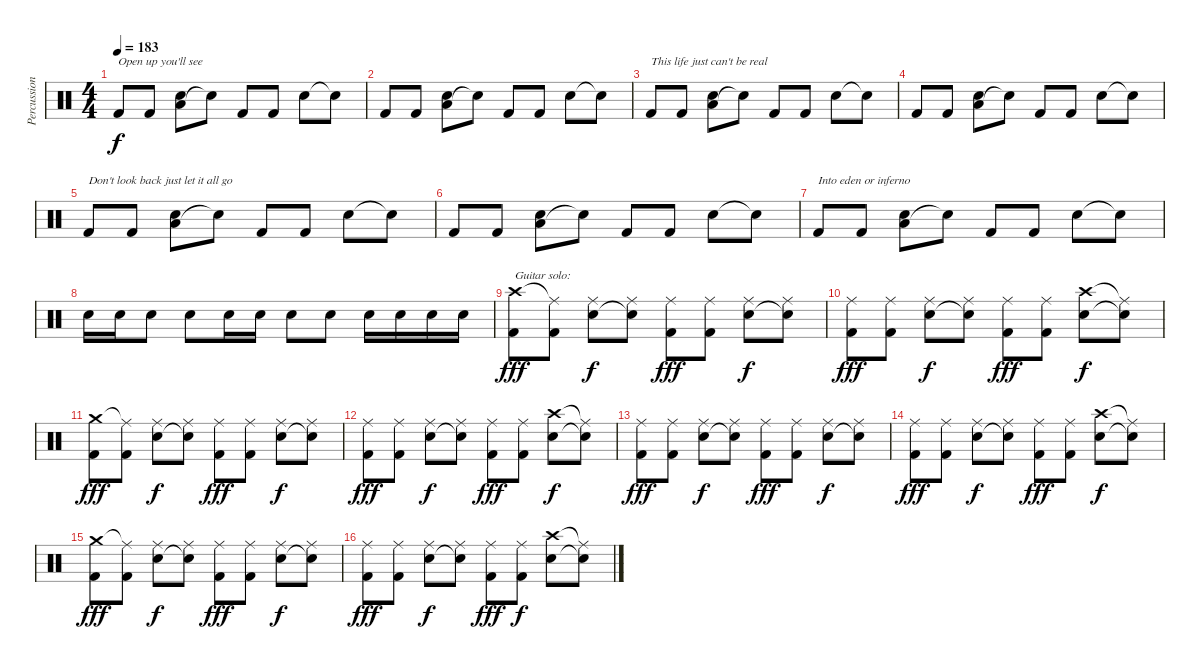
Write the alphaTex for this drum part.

\track ("Percussion" "Percussion") {instrument percussion}
\staff {score}
\articulation defaults
\ts (4 4)
\tempo 183
\clef neutral
\ks c "Kick (hit) 2".8{txt "Open up you'll see" dy f} "Kick (hit) 2".8
("Low Floor Tom (hit)" "Snare (hit) 2").8 "Snare (hit)"{t}.8 "Kick (hit) 2".8 "Kick (hit) 2".8 "Snare (hit) 2".8 "Snare (hit)"{t}.8 |
"Kick (hit) 2".8 "Kick (hit) 2".8 ("Low Floor Tom (hit)" "Snare (hit) 2").8 "Snare (hit)"{t}.8 "Kick (hit) 2".8 "Kick (hit) 2".8 "Snare (hit) 2".8 "Snare (hit)"{t}.8 |
"Kick (hit) 2".8{txt "This life just can't be real"} "Kick (hit) 2".8 ("Low Floor Tom (hit)" "Snare (hit) 2").8 "Snare (hit)"{t}.8 "Kick (hit) 2".8 "Kick (hit) 2".8 "Snare (hit) 2".8 "Snare (hit)"{t}.8 |
"Kick (hit) 2".8 "Kick (hit) 2".8 ("Low Floor Tom (hit)" "Snare (hit) 2").8 "Snare (hit)"{t}.8 "Kick (hit) 2".8 "Kick (hit) 2".8 "Snare (hit) 2".8 "Snare (hit)"{t}.8 |
"Kick (hit) 2".8{txt "Don't look back just let it all go"} "Kick (hit) 2".8 ("Low Floor Tom (hit)" "Snare (hit) 2").8 "Snare (hit)"{t}.8 "Kick (hit) 2".8 "Kick (hit) 2".8 "Snare (hit) 2".8 "Snare (hit)"{t}.8 |
"Kick (hit) 2".8 "Kick (hit) 2".8 ("Low Floor Tom (hit)" "Snare (hit) 2").8 "Snare (hit)"{t}.8 "Kick (hit) 2".8 "Kick (hit) 2".8 "Snare (hit) 2".8 "Snare (hit)"{t}.8 |
"Kick (hit) 2".8{txt "Into eden or inferno"} "Kick (hit) 2".8 ("Low Floor Tom (hit)" "Snare (hit) 2").8 "Snare (hit)"{t}.8 "Kick (hit) 2".8 "Kick (hit) 2".8 "Snare (hit) 2".8 "Snare (hit)"{t}.8 |
"Snare (hit) 2".16 "Snare (hit) 2".16 "Snare (hit) 2".8 "Snare (hit) 2".8 "Snare (hit) 2".16 "Snare (hit) 2".16 "Snare (hit) 2".8 "Snare (hit) 2".8 "Snare (hit) 2".16 "Snare (hit) 2".16 "Snare (hit) 2".16 "Snare (hit) 2".16 |
("Crash high (hit)" "Kick (hit) 2").8{txt "Guitar solo:" dy fff} ("Ride (middle)"{t} "Kick (hit) 2").8 ("Ride (middle)" "Snare (hit) 2").8{dy f} ("Ride (middle)" "Snare (hit)"{t}).8 ("Ride (middle)" "Kick (hit) 2").8{dy fff} ("Ride (middle)" "Kick (hit) 2").8 ("Ride (middle)" "Snare (hit) 2").8{dy f} ("Ride (middle)" "Snare (hit)"{t}).8 |
("Ride (middle)" "Kick (hit) 2").8{dy fff} ("Ride (middle)" "Kick (hit) 2").8 ("Ride (middle)" "Snare (hit) 2").8{dy f} ("Ride (middle)" "Snare (hit)"{t}).8 ("Ride (middle)" "Kick (hit) 2").8{dy fff} ("Ride (middle)" "Kick (hit) 2").8 ("Crash high (hit)" "Snare (hit) 2").8{dy f} ("Ride (middle)"{t} "Snare (hit)"{t}).8 |
("Crash medium (hit)" "Kick (hit) 2").8{dy fff} ("Ride (middle)"{t} "Kick (hit) 2").8 ("Ride (middle)" "Snare (hit) 2").8{dy f} ("Ride (middle)" "Snare (hit)"{t}).8 ("Ride (middle)" "Kick (hit) 2").8{dy fff} ("Ride (middle)" "Kick (hit) 2").8 ("Ride (middle)" "Snare (hit) 2").8{dy f} ("Ride (middle)" "Snare (hit)"{t}).8 |
("Ride (middle)" "Kick (hit) 2").8{dy fff} ("Ride (middle)" "Kick (hit) 2").8 ("Ride (middle)" "Snare (hit) 2").8{dy f} ("Ride (middle)" "Snare (hit)"{t}).8 ("Ride (middle)" "Kick (hit) 2").8{dy fff} ("Ride (middle)" "Kick (hit) 2").8 ("Crash high (hit)" "Snare (hit) 2").8{dy f} ("Ride (middle)"{t} "Snare (hit)"{t}).8 |
("Ride (middle)" "Kick (hit) 2").8{dy fff} ("Ride (middle)" "Kick (hit) 2").8 ("Ride (middle)" "Snare (hit) 2").8{dy f} ("Ride (middle)" "Snare (hit)"{t}).8 ("Ride (middle)" "Kick (hit) 2").8{dy fff} ("Ride (middle)" "Kick (hit) 2").8 ("Ride (middle)" "Snare (hit) 2").8{dy f} ("Ride (middle)" "Snare (hit)"{t}).8 |
("Ride (middle)" "Kick (hit) 2").8{dy fff} ("Ride (middle)" "Kick (hit) 2").8 ("Ride (middle)" "Snare (hit) 2").8{dy f} ("Ride (middle)" "Snare (hit)"{t}).8 ("Ride (middle)" "Kick (hit) 2").8{dy fff} ("Ride (middle)" "Kick (hit) 2").8 ("Crash high (hit)" "Snare (hit) 2").8{dy f} ("Ride (middle)"{t} "Snare (hit)"{t}).8 |
("Crash medium (hit)" "Kick (hit) 2").8{dy fff} ("Ride (middle)"{t} "Kick (hit) 2").8 ("Ride (middle)" "Snare (hit) 2").8{dy f} ("Ride (middle)" "Snare (hit)"{t}).8 ("Ride (middle)" "Kick (hit) 2").8{dy fff} ("Ride (middle)" "Kick (hit) 2").8 ("Ride (middle)" "Snare (hit) 2").8{dy f} ("Ride (middle)" "Snare (hit)"{t}).8 |
("Ride (middle)" "Kick (hit) 2").8{dy fff} ("Ride (middle)" "Kick (hit) 2").8 ("Ride (middle)" "Snare (hit) 2").8{dy f} ("Ride (middle)" "Snare (hit)"{t}).8 ("Ride (middle)" "Kick (hit) 2").8{dy fff} ("Ride (middle)" "Kick (hit) 2").8{dy f} ("Crash high (hit)" "Snare (hit) 2").8 ("Ride (middle)"{t} "Snare (hit)"{t}).8
